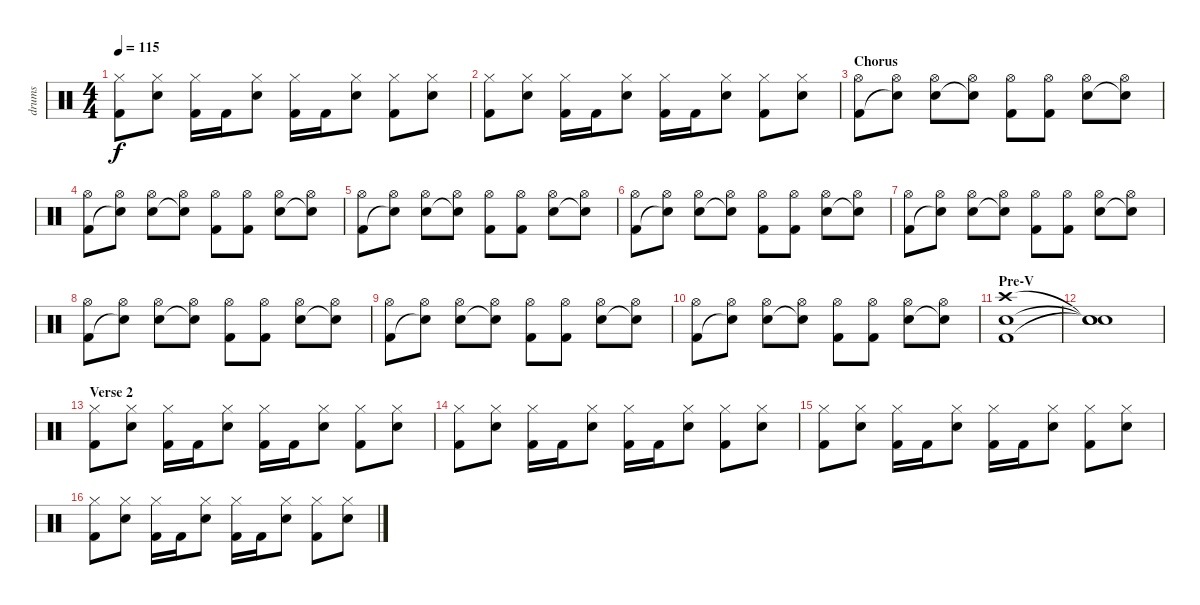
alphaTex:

\track ("drums" "drums") {instrument percussion}
\staff {score}
\articulation defaults
\ts (4 4)
\tempo 115
\clef neutral
\ks c
("Hi-Hat (closed)" "Kick (hit) 2").8{dy f} ("Hi-Hat (closed)" "Electric Snare (hit)").8 ("Hi-Hat (closed)" "Kick (hit) 2").16 "Kick (hit) 2".16 ("Hi-Hat (closed)" "Electric Snare (hit)").8 ("Hi-Hat (closed)" "Kick (hit) 2").16 "Kick (hit) 2".16 ("Hi-Hat (closed)" "Electric Snare (hit)").8 ("Hi-Hat (closed)" "Kick (hit) 2").8 ("Hi-Hat (closed)" "Electric Snare (hit)").8 |
("Hi-Hat (closed)" "Kick (hit) 2").8 ("Hi-Hat (closed)" "Electric Snare (hit)").8 ("Hi-Hat (closed)" "Kick (hit) 2").16 "Kick (hit) 2".16 ("Hi-Hat (closed)" "Electric Snare (hit)").8 ("Hi-Hat (closed)" "Kick (hit) 2").16 "Kick (hit) 2".16 ("Hi-Hat (closed)" "Electric Snare (hit)").8 ("Hi-Hat (closed)" "Kick (hit) 2").8 ("Hi-Hat (closed)" "Electric Snare (hit)").8 |
\section ("" "Chorus")
("Hi-Hat (open)" "Kick (hit) 2").8 ("Hi-Hat (open)" "Snare (hit)"{t}).8 ("Hi-Hat (open)" "Electric Snare (hit)").8 ("Hi-Hat (open)" "Snare (hit)"{t}).8 ("Hi-Hat (open)" "Kick (hit) 2").8 ("Hi-Hat (open)" "Kick (hit) 2").8 ("Hi-Hat (open)" "Electric Snare (hit)").8 ("Hi-Hat (open)" "Snare (hit)"{t}).8 |
("Hi-Hat (open)" "Kick (hit) 2").8 ("Hi-Hat (open)" "Snare (hit)"{t}).8 ("Hi-Hat (open)" "Electric Snare (hit)").8 ("Hi-Hat (open)" "Snare (hit)"{t}).8 ("Hi-Hat (open)" "Kick (hit) 2").8 ("Hi-Hat (open)" "Kick (hit) 2").8 ("Hi-Hat (open)" "Electric Snare (hit)").8 ("Hi-Hat (open)" "Snare (hit)"{t}).8 |
("Hi-Hat (open)" "Kick (hit) 2").8 ("Hi-Hat (open)" "Snare (hit)"{t}).8 ("Hi-Hat (open)" "Electric Snare (hit)").8 ("Hi-Hat (open)" "Snare (hit)"{t}).8 ("Hi-Hat (open)" "Kick (hit) 2").8 ("Hi-Hat (open)" "Kick (hit) 2").8 ("Hi-Hat (open)" "Electric Snare (hit)").8 ("Hi-Hat (open)" "Snare (hit)"{t}).8 |
("Hi-Hat (open)" "Kick (hit) 2").8 ("Hi-Hat (open)" "Snare (hit)"{t}).8 ("Hi-Hat (open)" "Electric Snare (hit)").8 ("Hi-Hat (open)" "Snare (hit)"{t}).8 ("Hi-Hat (open)" "Kick (hit) 2").8 ("Hi-Hat (open)" "Kick (hit) 2").8 ("Hi-Hat (open)" "Electric Snare (hit)").8 ("Hi-Hat (open)" "Snare (hit)"{t}).8 |
("Hi-Hat (open)" "Kick (hit) 2").8 ("Hi-Hat (open)" "Snare (hit)"{t}).8 ("Hi-Hat (open)" "Electric Snare (hit)").8 ("Hi-Hat (open)" "Snare (hit)"{t}).8 ("Hi-Hat (open)" "Kick (hit) 2").8 ("Hi-Hat (open)" "Kick (hit) 2").8 ("Hi-Hat (open)" "Electric Snare (hit)").8 ("Hi-Hat (open)" "Snare (hit)"{t}).8 |
("Hi-Hat (open)" "Kick (hit) 2").8 ("Hi-Hat (open)" "Snare (hit)"{t}).8 ("Hi-Hat (open)" "Electric Snare (hit)").8 ("Hi-Hat (open)" "Snare (hit)"{t}).8 ("Hi-Hat (open)" "Kick (hit) 2").8 ("Hi-Hat (open)" "Kick (hit) 2").8 ("Hi-Hat (open)" "Electric Snare (hit)").8 ("Hi-Hat (open)" "Snare (hit)"{t}).8 |
("Hi-Hat (open)" "Kick (hit) 2").8 ("Hi-Hat (open)" "Snare (hit)"{t}).8 ("Hi-Hat (open)" "Electric Snare (hit)").8 ("Hi-Hat (open)" "Snare (hit)"{t}).8 ("Hi-Hat (open)" "Kick (hit) 2").8 ("Hi-Hat (open)" "Kick (hit) 2").8 ("Hi-Hat (open)" "Electric Snare (hit)").8 ("Hi-Hat (open)" "Snare (hit)"{t}).8 |
("Hi-Hat (open)" "Kick (hit) 2").8 ("Hi-Hat (open)" "Snare (hit)"{t}).8 ("Hi-Hat (open)" "Electric Snare (hit)").8 ("Hi-Hat (open)" "Snare (hit)"{t}).8 ("Hi-Hat (open)" "Kick (hit) 2").8 ("Hi-Hat (open)" "Kick (hit) 2").8 ("Hi-Hat (open)" "Electric Snare (hit)").8 ("Hi-Hat (open)" "Snare (hit)"{t}).8 |
\section ("" "Pre-V")
("Crash high (hit)" "Electric Snare (hit)" "Kick (hit) 2").1 |
("Snare (hit)"{t} "Snare (hit)"{t} "Snare (hit)"{t}).1 |
\section ("" "Verse 2")
("Hi-Hat (closed)" "Kick (hit) 2").8 ("Hi-Hat (closed)" "Electric Snare (hit)").8 ("Hi-Hat (closed)" "Kick (hit) 2").16 "Kick (hit) 2".16 ("Hi-Hat (closed)" "Electric Snare (hit)").8 ("Hi-Hat (closed)" "Kick (hit) 2").16 "Kick (hit) 2".16 ("Hi-Hat (closed)" "Electric Snare (hit)").8 ("Hi-Hat (closed)" "Kick (hit) 2").8 ("Hi-Hat (closed)" "Electric Snare (hit)").8 |
("Hi-Hat (closed)" "Kick (hit) 2").8 ("Hi-Hat (closed)" "Electric Snare (hit)").8 ("Hi-Hat (closed)" "Kick (hit) 2").16 "Kick (hit) 2".16 ("Hi-Hat (closed)" "Electric Snare (hit)").8 ("Hi-Hat (closed)" "Kick (hit) 2").16 "Kick (hit) 2".16 ("Hi-Hat (closed)" "Electric Snare (hit)").8 ("Hi-Hat (closed)" "Kick (hit) 2").8 ("Hi-Hat (closed)" "Electric Snare (hit)").8 |
("Hi-Hat (closed)" "Kick (hit) 2").8 ("Hi-Hat (closed)" "Electric Snare (hit)").8 ("Hi-Hat (closed)" "Kick (hit) 2").16 "Kick (hit) 2".16 ("Hi-Hat (closed)" "Electric Snare (hit)").8 ("Hi-Hat (closed)" "Kick (hit) 2").16 "Kick (hit) 2".16 ("Hi-Hat (closed)" "Electric Snare (hit)").8 ("Hi-Hat (closed)" "Kick (hit) 2").8 ("Hi-Hat (closed)" "Electric Snare (hit)").8 |
("Hi-Hat (closed)" "Kick (hit) 2").8 ("Hi-Hat (closed)" "Electric Snare (hit)").8 ("Hi-Hat (closed)" "Kick (hit) 2").16 "Kick (hit) 2".16 ("Hi-Hat (closed)" "Electric Snare (hit)").8 ("Hi-Hat (closed)" "Kick (hit) 2").16 "Kick (hit) 2".16 ("Hi-Hat (closed)" "Electric Snare (hit)").8 ("Hi-Hat (closed)" "Kick (hit) 2").8 ("Hi-Hat (closed)" "Electric Snare (hit)").8
